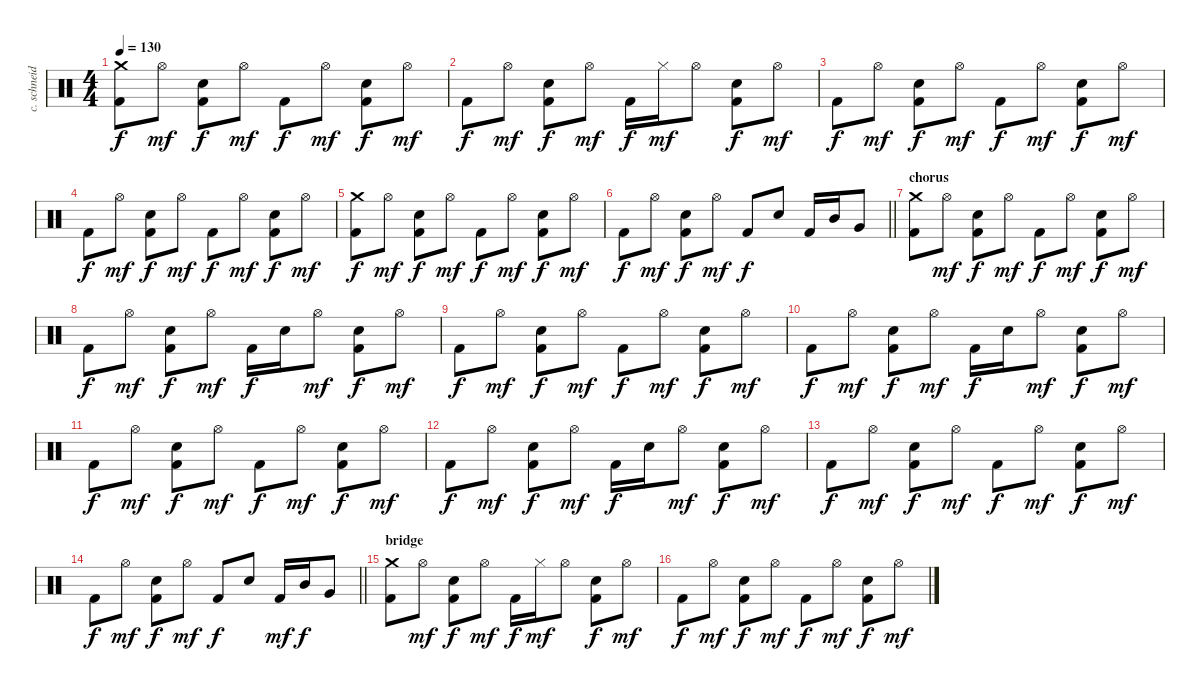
\track ("c. schneider - drums" "c. schneid") {instrument percussion}
\staff {score}
\articulation defaults
\ts (4 4)
\tempo 130
\clef neutral
\ks c
("Crash medium (hit)" "Kick (hit) 2").8{dy f} "Hi-Hat (open)".8{dy mf} ("Electric Snare (hit)" "Kick (hit) 2").8{dy f} "Hi-Hat (open)".8{dy mf} "Kick (hit) 2".8{dy f} "Hi-Hat (open)".8{dy mf} ("Electric Snare (hit)" "Kick (hit) 2").8{dy f} "Hi-Hat (open)".8{dy mf} |
"Kick (hit) 2".8{dy f} "Hi-Hat (open)".8{dy mf} ("Electric Snare (hit)" "Kick (hit) 2").8{dy f} "Hi-Hat (open)".8{dy mf} "Kick (hit) 2".16{dy f} "Hi-Hat (closed)".16{dy mf} "Hi-Hat (open)".8 ("Electric Snare (hit)" "Kick (hit) 2").8{dy f} "Hi-Hat (open)".8{dy mf} |
"Kick (hit) 2".8{dy f} "Hi-Hat (open)".8{dy mf} ("Electric Snare (hit)" "Kick (hit) 2").8{dy f} "Hi-Hat (open)".8{dy mf} "Kick (hit) 2".8{dy f} "Hi-Hat (open)".8{dy mf} ("Electric Snare (hit)" "Kick (hit) 2").8{dy f} "Hi-Hat (open)".8{dy mf} |
"Kick (hit) 2".8{dy f} "Hi-Hat (open)".8{dy mf} ("Electric Snare (hit)" "Kick (hit) 2").8{dy f} "Hi-Hat (open)".8{dy mf} "Kick (hit) 2".8{dy f} "Hi-Hat (open)".8{dy mf} ("Electric Snare (hit)" "Kick (hit) 2").8{dy f} "Hi-Hat (open)".8{dy mf} |
("Crash medium (hit)" "Kick (hit) 2").8{dy f} "Hi-Hat (open)".8{dy mf} ("Electric Snare (hit)" "Kick (hit) 2").8{dy f} "Hi-Hat (open)".8{dy mf} "Kick (hit) 2".8{dy f} "Hi-Hat (open)".8{dy mf} ("Electric Snare (hit)" "Kick (hit) 2").8{dy f} "Hi-Hat (open)".8{dy mf} |
\barLineRight lightlight "Kick (hit) 2".8{dy f} "Hi-Hat (open)".8{dy mf}
("Electric Snare (hit)" "Kick (hit) 2").8{dy f} "Hi-Hat (open)".8{dy mf} "Kick (hit) 2".8{dy f} "Electric Snare (hit)".8 "Kick (hit) 2".16 "Mid Tom (hit)".16 "Very Low Tom (hit)".8 |
\section ("" "chorus")
("Crash medium (hit)" "Kick (hit) 2").8 "Hi-Hat (open)".8{dy mf} ("Electric Snare (hit)" "Kick (hit) 2").8{dy f} "Hi-Hat (open)".8{dy mf} "Kick (hit) 2".8{dy f} "Hi-Hat (open)".8{dy mf} ("Electric Snare (hit)" "Kick (hit) 2").8{dy f} "Hi-Hat (open)".8{dy mf} |
"Kick (hit) 2".8{dy f} "Hi-Hat (open)".8{dy mf} ("Electric Snare (hit)" "Kick (hit) 2").8{dy f} "Hi-Hat (open)".8{dy mf} "Kick (hit) 2".16{dy f} "Electric Snare (hit)".16 "Hi-Hat (open)".8{dy mf} ("Electric Snare (hit)" "Kick (hit) 2").8{dy f} "Hi-Hat (open)".8{dy mf} |
"Kick (hit) 2".8{dy f} "Hi-Hat (open)".8{dy mf} ("Electric Snare (hit)" "Kick (hit) 2").8{dy f} "Hi-Hat (open)".8{dy mf} "Kick (hit) 2".8{dy f} "Hi-Hat (open)".8{dy mf} ("Electric Snare (hit)" "Kick (hit) 2").8{dy f} "Hi-Hat (open)".8{dy mf} |
"Kick (hit) 2".8{dy f} "Hi-Hat (open)".8{dy mf} ("Electric Snare (hit)" "Kick (hit) 2").8{dy f} "Hi-Hat (open)".8{dy mf} "Kick (hit) 2".16{dy f} "Electric Snare (hit)".16 "Hi-Hat (open)".8{dy mf} ("Electric Snare (hit)" "Kick (hit) 2").8{dy f} "Hi-Hat (open)".8{dy mf} |
"Kick (hit) 2".8{dy f} "Hi-Hat (open)".8{dy mf} ("Electric Snare (hit)" "Kick (hit) 2").8{dy f} "Hi-Hat (open)".8{dy mf} "Kick (hit) 2".8{dy f} "Hi-Hat (open)".8{dy mf} ("Electric Snare (hit)" "Kick (hit) 2").8{dy f} "Hi-Hat (open)".8{dy mf} |
"Kick (hit) 2".8{dy f} "Hi-Hat (open)".8{dy mf} ("Electric Snare (hit)" "Kick (hit) 2").8{dy f} "Hi-Hat (open)".8{dy mf} "Kick (hit) 2".16{dy f} "Electric Snare (hit)".16 "Hi-Hat (open)".8{dy mf} ("Electric Snare (hit)" "Kick (hit) 2").8{dy f} "Hi-Hat (open)".8{dy mf} |
"Kick (hit) 2".8{dy f} "Hi-Hat (open)".8{dy mf} ("Electric Snare (hit)" "Kick (hit) 2").8{dy f} "Hi-Hat (open)".8{dy mf} "Kick (hit) 2".8{dy f} "Hi-Hat (open)".8{dy mf} ("Electric Snare (hit)" "Kick (hit) 2").8{dy f} "Hi-Hat (open)".8{dy mf} |
\barLineRight lightlight "Kick (hit) 2".8{dy f} "Hi-Hat (open)".8{dy mf}
("Electric Snare (hit)" "Kick (hit) 2").8{dy f} "Hi-Hat (open)".8{dy mf} "Kick (hit) 2".8{dy f} "Electric Snare (hit)".8 "Kick (hit) 2".16{dy mf} "Mid Tom (hit)".16{dy f} "Very Low Tom (hit)".8 |
\section ("" "bridge")
("Crash medium (hit)" "Kick (hit) 2").8 "Hi-Hat (open)".8{dy mf} ("Electric Snare (hit)" "Kick (hit) 2").8{dy f} "Hi-Hat (open)".8{dy mf} "Kick (hit) 2".16{dy f} "Hi-Hat (closed)".16{dy mf} "Hi-Hat (open)".8 ("Electric Snare (hit)" "Kick (hit) 2").8{dy f} "Hi-Hat (open)".8{dy mf} |
"Kick (hit) 2".8{dy f} "Hi-Hat (open)".8{dy mf} ("Electric Snare (hit)" "Kick (hit) 2").8{dy f} "Hi-Hat (open)".8{dy mf} "Kick (hit) 2".8{dy f} "Hi-Hat (open)".8{dy mf} ("Electric Snare (hit)" "Kick (hit) 2").8{dy f} "Hi-Hat (open)".8{dy mf}
